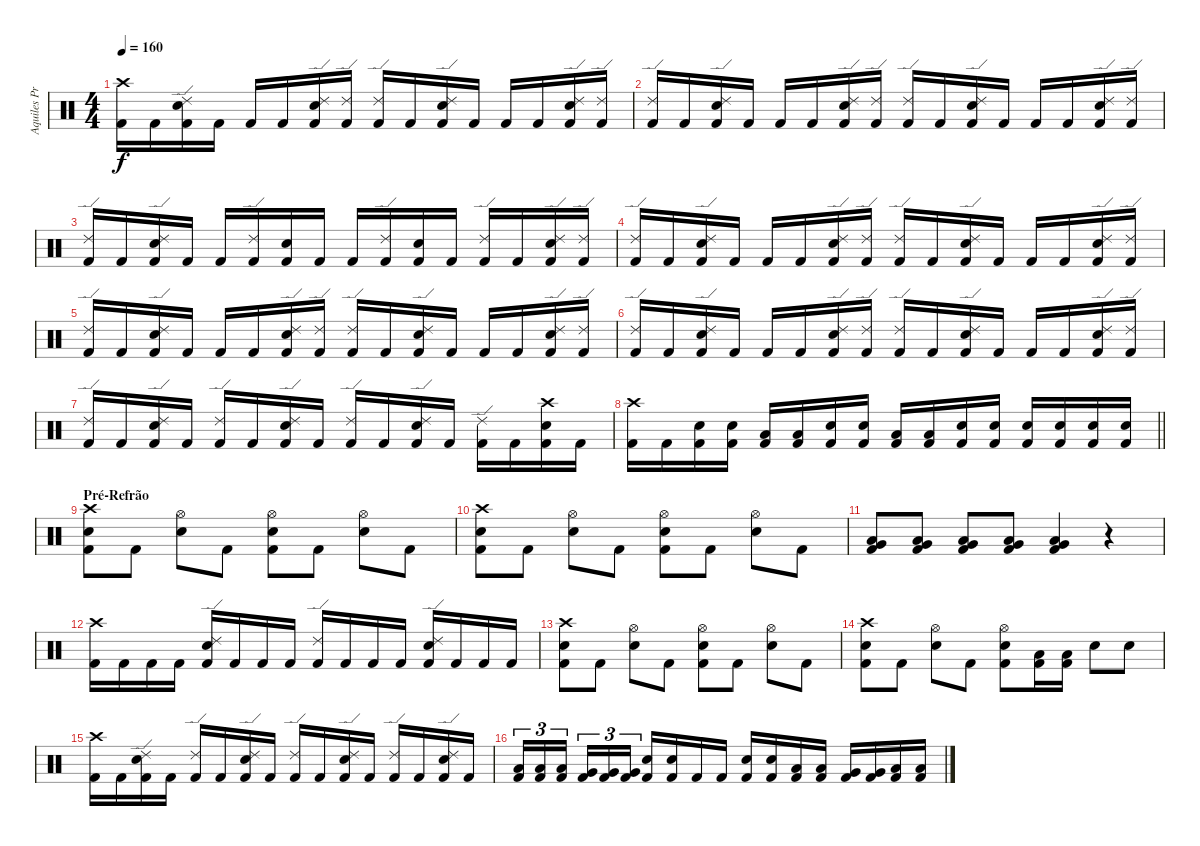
\track ("Aquiles Priester" "Aquiles Pr") {instrument percussion}
\staff {score}
\articulation defaults
\ts (4 4)
\tempo 160
\clef neutral
\ks c
("Crash high (hit)" "Kick (hit) 2").16{dy f} "Kick (hit) 2".16 ("Ride (edge) 2" "Electric Snare (hit)" "Kick (hit) 2").16 "Kick (hit) 2".16 "Kick (hit) 2".16 "Kick (hit) 2".16 ("Ride (edge) 2" "Electric Snare (hit)" "Kick (hit) 2").16 ("Ride (edge) 2" "Kick (hit) 2").16 ("Ride (edge) 2" "Kick (hit) 2").16 "Kick (hit) 2".16 ("Ride (edge) 2" "Electric Snare (hit)" "Kick (hit) 2").16 "Kick (hit) 2".16 "Kick (hit) 2".16 "Kick (hit) 2".16 ("Ride (edge) 2" "Electric Snare (hit)" "Kick (hit) 2").16 ("Ride (edge) 2" "Kick (hit) 2").16 |
("Ride (edge) 2" "Kick (hit) 2").16 "Kick (hit) 2".16 ("Ride (edge) 2" "Electric Snare (hit)" "Kick (hit) 2").16 "Kick (hit) 2".16 "Kick (hit) 2".16 "Kick (hit) 2".16 ("Ride (edge) 2" "Electric Snare (hit)" "Kick (hit) 2").16 ("Ride (edge) 2" "Kick (hit) 2").16 ("Ride (edge) 2" "Kick (hit) 2").16 "Kick (hit) 2".16 ("Ride (edge) 2" "Electric Snare (hit)" "Kick (hit) 2").16 "Kick (hit) 2".16 "Kick (hit) 2".16 "Kick (hit) 2".16 ("Ride (edge) 2" "Electric Snare (hit)" "Kick (hit) 2").16 ("Ride (edge) 2" "Kick (hit) 2").16 |
("Ride (edge) 2" "Kick (hit) 2").16 "Kick (hit) 2".16 ("Ride (edge) 2" "Electric Snare (hit)" "Kick (hit) 2").16 "Kick (hit) 2".16 "Kick (hit) 2".16 ("Ride (edge) 2" "Kick (hit) 2").16 ("Electric Snare (hit)" "Kick (hit) 2").16 "Kick (hit) 2".16 "Kick (hit) 2".16 ("Ride (edge) 2" "Kick (hit) 2").16 ("Electric Snare (hit)" "Kick (hit) 2").16 "Kick (hit) 2".16 ("Ride (edge) 2" "Kick (hit) 2").16 "Kick (hit) 2".16 ("Ride (edge) 2" "Electric Snare (hit)" "Kick (hit) 2").16 ("Ride (edge) 2" "Kick (hit) 2").16 |
("Ride (edge) 2" "Kick (hit) 2").16 "Kick (hit) 2".16 ("Ride (edge) 2" "Electric Snare (hit)" "Kick (hit) 2").16 "Kick (hit) 2".16 "Kick (hit) 2".16 "Kick (hit) 2".16 ("Ride (edge) 2" "Electric Snare (hit)" "Kick (hit) 2").16 ("Ride (edge) 2" "Kick (hit) 2").16 ("Ride (edge) 2" "Kick (hit) 2").16 "Kick (hit) 2".16 ("Ride (edge) 2" "Electric Snare (hit)" "Kick (hit) 2").16 "Kick (hit) 2".16 "Kick (hit) 2".16 "Kick (hit) 2".16 ("Ride (edge) 2" "Electric Snare (hit)" "Kick (hit) 2").16 ("Ride (edge) 2" "Kick (hit) 2").16 |
("Ride (edge) 2" "Kick (hit) 2").16 "Kick (hit) 2".16 ("Ride (edge) 2" "Electric Snare (hit)" "Kick (hit) 2").16 "Kick (hit) 2".16 "Kick (hit) 2".16 "Kick (hit) 2".16 ("Ride (edge) 2" "Electric Snare (hit)" "Kick (hit) 2").16 ("Ride (edge) 2" "Kick (hit) 2").16 ("Ride (edge) 2" "Kick (hit) 2").16 "Kick (hit) 2".16 ("Ride (edge) 2" "Electric Snare (hit)" "Kick (hit) 2").16 "Kick (hit) 2".16 "Kick (hit) 2".16 "Kick (hit) 2".16 ("Ride (edge) 2" "Electric Snare (hit)" "Kick (hit) 2").16 ("Ride (edge) 2" "Kick (hit) 2").16 |
("Ride (edge) 2" "Kick (hit) 2").16 "Kick (hit) 2".16 ("Ride (edge) 2" "Electric Snare (hit)" "Kick (hit) 2").16 "Kick (hit) 2".16 "Kick (hit) 2".16 "Kick (hit) 2".16 ("Ride (edge) 2" "Electric Snare (hit)" "Kick (hit) 2").16 ("Ride (edge) 2" "Kick (hit) 2").16 ("Ride (edge) 2" "Kick (hit) 2").16 "Kick (hit) 2".16 ("Ride (edge) 2" "Electric Snare (hit)" "Kick (hit) 2").16 "Kick (hit) 2".16 "Kick (hit) 2".16 "Kick (hit) 2".16 ("Ride (edge) 2" "Electric Snare (hit)" "Kick (hit) 2").16 ("Ride (edge) 2" "Kick (hit) 2").16 |
("Ride (edge) 2" "Kick (hit) 2").16 "Kick (hit) 2".16 ("Ride (edge) 2" "Electric Snare (hit)" "Kick (hit) 2").16 "Kick (hit) 2".16 ("Ride (edge) 2" "Kick (hit) 2").16 "Kick (hit) 2".16 ("Ride (edge) 2" "Electric Snare (hit)" "Kick (hit) 2").16 "Kick (hit) 2".16 ("Ride (edge) 2" "Kick (hit) 2").16 "Kick (hit) 2".16 ("Ride (edge) 2" "Electric Snare (hit)" "Kick (hit) 2").16 "Kick (hit) 2".16 ("Ride (edge) 2" "Kick (hit) 2").16 "Kick (hit) 2".16 ("Crash high (hit)" "Electric Snare (hit)" "Kick (hit) 2").16 "Kick (hit) 2".16 |
\barLineRight lightlight
("Crash high (hit)" "Kick (hit) 2").16 "Kick (hit) 2".16 ("Electric Snare (hit)" "Kick (hit) 2").16 ("Electric Snare (hit)" "Kick (hit) 2").16 ("Low Tom (hit)" "Kick (hit) 2").16 ("Low Tom (hit)" "Kick (hit) 2").16 ("Electric Snare (hit)" "Kick (hit) 2").16 ("Electric Snare (hit)" "Kick (hit) 2").16 ("Low Tom (hit)" "Kick (hit) 2").16 ("Low Tom (hit)" "Kick (hit) 2").16 ("Electric Snare (hit)" "Kick (hit) 2").16 ("Electric Snare (hit)" "Kick (hit) 2").16 ("Electric Snare (hit)" "Kick (hit) 2").16 ("Electric Snare (hit)" "Kick (hit) 2").16 ("Electric Snare (hit)" "Kick (hit) 2").16 ("Electric Snare (hit)" "Kick (hit) 2").16 |
\section ("" "Pré-Refrão")
("Crash high (hit)" "Electric Snare (hit)" "Kick (hit) 2").8 "Kick (hit) 2".8 ("Hi-Hat (open)" "Electric Snare (hit)").8 "Kick (hit) 2".8 ("Hi-Hat (open)" "Electric Snare (hit)" "Kick (hit) 2").8 "Kick (hit) 2".8 ("Hi-Hat (open)" "Electric Snare (hit)").8 "Kick (hit) 2".8 |
("Crash high (hit)" "Electric Snare (hit)" "Kick (hit) 2").8 "Kick (hit) 2".8 ("Hi-Hat (open)" "Electric Snare (hit)").8 "Kick (hit) 2".8 ("Hi-Hat (open)" "Electric Snare (hit)" "Kick (hit) 2").8 "Kick (hit) 2".8 ("Hi-Hat (open)" "Electric Snare (hit)").8 "Kick (hit) 2".8 |
("Low Tom (hit)" "Very Low Tom (hit)" "Kick (hit) 2").8 ("Low Tom (hit)" "Very Low Tom (hit)" "Kick (hit) 2").8 ("Low Tom (hit)" "Very Low Tom (hit)" "Kick (hit) 2").8 ("Low Tom (hit)" "Very Low Tom (hit)" "Kick (hit) 2").8 ("Low Tom (hit)" "Very Low Tom (hit)" "Kick (hit) 2").4 r.4 |
("Crash high (hit)" "Kick (hit) 2").16 "Kick (hit) 2".16 "Kick (hit) 2".16 "Kick (hit) 2".16 ("Ride (edge) 2" "Electric Snare (hit)" "Kick (hit) 2").16 "Kick (hit) 2".16 "Kick (hit) 2".16 "Kick (hit) 2".16 ("Ride (edge) 2" "Kick (hit) 2").16 "Kick (hit) 2".16 "Kick (hit) 2".16 "Kick (hit) 2".16 ("Ride (edge) 2" "Electric Snare (hit)" "Kick (hit) 2").16 "Kick (hit) 2".16 "Kick (hit) 2".16 "Kick (hit) 2".16 |
("Crash high (hit)" "Electric Snare (hit)" "Kick (hit) 2").8 "Kick (hit) 2".8 ("Hi-Hat (open)" "Electric Snare (hit)").8 "Kick (hit) 2".8 ("Hi-Hat (open)" "Electric Snare (hit)" "Kick (hit) 2").8 "Kick (hit) 2".8 ("Hi-Hat (open)" "Electric Snare (hit)").8 "Kick (hit) 2".8 |
("Crash high (hit)" "Electric Snare (hit)" "Kick (hit) 2").8 "Kick (hit) 2".8 ("Hi-Hat (open)" "Electric Snare (hit)").8 "Kick (hit) 2".8 ("Hi-Hat (open)" "Electric Snare (hit)" "Kick (hit) 2").8 ("Low Tom (hit)" "Kick (hit) 2").16 ("Low Tom (hit)" "Kick (hit) 2").16 "Electric Snare (hit)".8 "Electric Snare (hit)".8 |
("Crash high (hit)" "Kick (hit) 2").16 "Kick (hit) 2".16 ("Ride (edge) 2" "Electric Snare (hit)" "Kick (hit) 2").16 "Kick (hit) 2".16 ("Ride (edge) 2" "Kick (hit) 2").16 "Kick (hit) 2".16 ("Ride (edge) 2" "Electric Snare (hit)" "Kick (hit) 2").16 "Kick (hit) 2".16 ("Ride (edge) 2" "Kick (hit) 2").16 "Kick (hit) 2".16 ("Ride (edge) 2" "Electric Snare (hit)" "Kick (hit) 2").16 "Kick (hit) 2".16 ("Ride (edge) 2" "Kick (hit) 2").16 "Kick (hit) 2".16 ("Ride (edge) 2" "Electric Snare (hit)" "Kick (hit) 2").16 "Kick (hit) 2".16 |
("Low Tom (hit)" "Kick (hit) 2").16{tu (3 2)} ("Low Tom (hit)" "Kick (hit) 2").16{tu (3 2)} ("Low Tom (hit)" "Kick (hit) 2").16{tu (3 2) beam splitsecondary} ("Very Low Tom (hit)" "Kick (hit) 2").16{tu (3 2)} ("Very Low Tom (hit)" "Kick (hit) 2").16{tu (3 2)} ("Very Low Tom (hit)" "Kick (hit) 2").16{tu (3 2)} ("Electric Snare (hit)" "Kick (hit) 2").16 ("Electric Snare (hit)" "Kick (hit) 2").16 "Kick (hit) 2".16 "Kick (hit) 2".16 ("Electric Snare (hit)" "Kick (hit) 2").16 ("Electric Snare (hit)" "Kick (hit) 2").16 ("Low Tom (hit)" "Kick (hit) 2").16 ("Low Tom (hit)" "Kick (hit) 2").16 ("Very Low Tom (hit)" "Kick (hit) 2").16 ("Very Low Tom (hit)" "Kick (hit) 2").16 ("Low Floor Tom (hit)" "Kick (hit) 2").16 ("Low Floor Tom (hit)" "Kick (hit) 2").16
